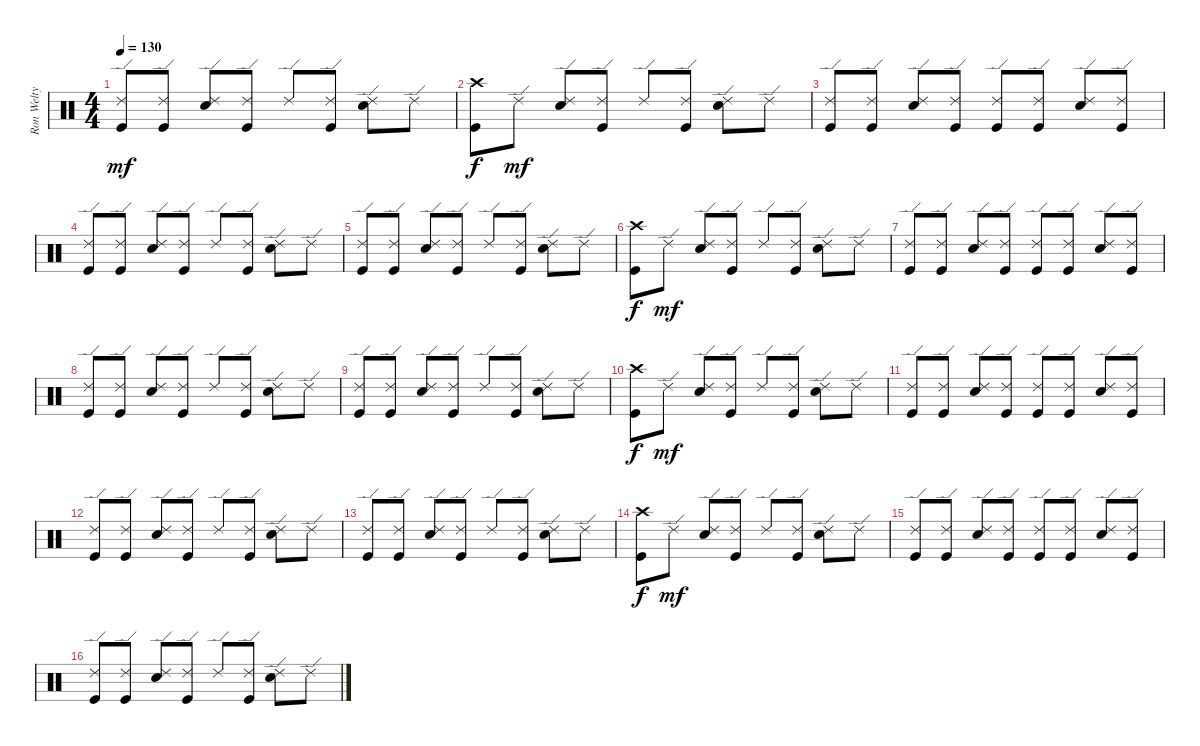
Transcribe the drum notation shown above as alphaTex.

\track ("Ron Welty" "Ron Welty") {instrument percussion}
\staff {score}
\articulation defaults
\ts (4 4)
\tempo 130
\clef neutral
\ks c
("Kick (hit)" "Ride (edge) 2").8{dy mf} ("Kick (hit)" "Ride (edge) 2").8 ("Electric Snare (hit)" "Ride (edge) 2").8 ("Kick (hit)" "Ride (edge) 2").8 "Ride (edge) 2".8 ("Kick (hit)" "Ride (edge) 2").8 ("Electric Snare (hit)" "Ride (edge) 2").8 "Ride (edge) 2".8 |
("Kick (hit)" "Crash high (hit)").8{dy f} "Ride (edge) 2".8{dy mf} ("Electric Snare (hit)" "Ride (edge) 2").8 ("Kick (hit)" "Ride (edge) 2").8 "Ride (edge) 2".8 ("Kick (hit)" "Ride (edge) 2").8 ("Electric Snare (hit)" "Ride (edge) 2").8 "Ride (edge) 2".8 |
("Kick (hit)" "Ride (edge) 2").8 ("Kick (hit)" "Ride (edge) 2").8 ("Electric Snare (hit)" "Ride (edge) 2").8 ("Kick (hit)" "Ride (edge) 2").8 ("Kick (hit)" "Ride (edge) 2").8 ("Kick (hit)" "Ride (edge) 2").8 ("Electric Snare (hit)" "Ride (edge) 2").8 ("Kick (hit)" "Ride (edge) 2").8 |
("Kick (hit)" "Ride (edge) 2").8 ("Kick (hit)" "Ride (edge) 2").8 ("Electric Snare (hit)" "Ride (edge) 2").8 ("Kick (hit)" "Ride (edge) 2").8 "Ride (edge) 2".8 ("Kick (hit)" "Ride (edge) 2").8 ("Electric Snare (hit)" "Ride (edge) 2").8 "Ride (edge) 2".8 |
("Kick (hit)" "Ride (edge) 2").8 ("Kick (hit)" "Ride (edge) 2").8 ("Electric Snare (hit)" "Ride (edge) 2").8 ("Kick (hit)" "Ride (edge) 2").8 "Ride (edge) 2".8 ("Kick (hit)" "Ride (edge) 2").8 ("Electric Snare (hit)" "Ride (edge) 2").8 "Ride (edge) 2".8 |
("Kick (hit)" "Crash high (hit)").8{dy f} "Ride (edge) 2".8{dy mf} ("Electric Snare (hit)" "Ride (edge) 2").8 ("Kick (hit)" "Ride (edge) 2").8 "Ride (edge) 2".8 ("Kick (hit)" "Ride (edge) 2").8 ("Electric Snare (hit)" "Ride (edge) 2").8 "Ride (edge) 2".8 |
("Kick (hit)" "Ride (edge) 2").8 ("Kick (hit)" "Ride (edge) 2").8 ("Electric Snare (hit)" "Ride (edge) 2").8 ("Kick (hit)" "Ride (edge) 2").8 ("Kick (hit)" "Ride (edge) 2").8 ("Kick (hit)" "Ride (edge) 2").8 ("Electric Snare (hit)" "Ride (edge) 2").8 ("Kick (hit)" "Ride (edge) 2").8 |
("Kick (hit)" "Ride (edge) 2").8 ("Kick (hit)" "Ride (edge) 2").8 ("Electric Snare (hit)" "Ride (edge) 2").8 ("Kick (hit)" "Ride (edge) 2").8 "Ride (edge) 2".8 ("Kick (hit)" "Ride (edge) 2").8 ("Electric Snare (hit)" "Ride (edge) 2").8 "Ride (edge) 2".8 |
("Kick (hit)" "Ride (edge) 2").8 ("Kick (hit)" "Ride (edge) 2").8 ("Electric Snare (hit)" "Ride (edge) 2").8 ("Kick (hit)" "Ride (edge) 2").8 "Ride (edge) 2".8 ("Kick (hit)" "Ride (edge) 2").8 ("Electric Snare (hit)" "Ride (edge) 2").8 "Ride (edge) 2".8 |
("Kick (hit)" "Crash high (hit)").8{dy f} "Ride (edge) 2".8{dy mf} ("Electric Snare (hit)" "Ride (edge) 2").8 ("Kick (hit)" "Ride (edge) 2").8 "Ride (edge) 2".8 ("Kick (hit)" "Ride (edge) 2").8 ("Electric Snare (hit)" "Ride (edge) 2").8 "Ride (edge) 2".8 |
("Kick (hit)" "Ride (edge) 2").8 ("Kick (hit)" "Ride (edge) 2").8 ("Electric Snare (hit)" "Ride (edge) 2").8 ("Kick (hit)" "Ride (edge) 2").8 ("Kick (hit)" "Ride (edge) 2").8 ("Kick (hit)" "Ride (edge) 2").8 ("Electric Snare (hit)" "Ride (edge) 2").8 ("Kick (hit)" "Ride (edge) 2").8 |
("Kick (hit)" "Ride (edge) 2").8 ("Kick (hit)" "Ride (edge) 2").8 ("Electric Snare (hit)" "Ride (edge) 2").8 ("Kick (hit)" "Ride (edge) 2").8 "Ride (edge) 2".8 ("Kick (hit)" "Ride (edge) 2").8 ("Electric Snare (hit)" "Ride (edge) 2").8 "Ride (edge) 2".8 |
("Kick (hit)" "Ride (edge) 2").8 ("Kick (hit)" "Ride (edge) 2").8 ("Electric Snare (hit)" "Ride (edge) 2").8 ("Kick (hit)" "Ride (edge) 2").8 "Ride (edge) 2".8 ("Kick (hit)" "Ride (edge) 2").8 ("Electric Snare (hit)" "Ride (edge) 2").8 "Ride (edge) 2".8 |
("Kick (hit)" "Crash high (hit)").8{dy f} "Ride (edge) 2".8{dy mf} ("Electric Snare (hit)" "Ride (edge) 2").8 ("Kick (hit)" "Ride (edge) 2").8 "Ride (edge) 2".8 ("Kick (hit)" "Ride (edge) 2").8 ("Electric Snare (hit)" "Ride (edge) 2").8 "Ride (edge) 2".8 |
("Kick (hit)" "Ride (edge) 2").8 ("Kick (hit)" "Ride (edge) 2").8 ("Electric Snare (hit)" "Ride (edge) 2").8 ("Kick (hit)" "Ride (edge) 2").8 ("Kick (hit)" "Ride (edge) 2").8 ("Kick (hit)" "Ride (edge) 2").8 ("Electric Snare (hit)" "Ride (edge) 2").8 ("Kick (hit)" "Ride (edge) 2").8 |
("Kick (hit)" "Ride (edge) 2").8 ("Kick (hit)" "Ride (edge) 2").8 ("Electric Snare (hit)" "Ride (edge) 2").8 ("Kick (hit)" "Ride (edge) 2").8 "Ride (edge) 2".8 ("Kick (hit)" "Ride (edge) 2").8 ("Electric Snare (hit)" "Ride (edge) 2").8 "Ride (edge) 2".8
